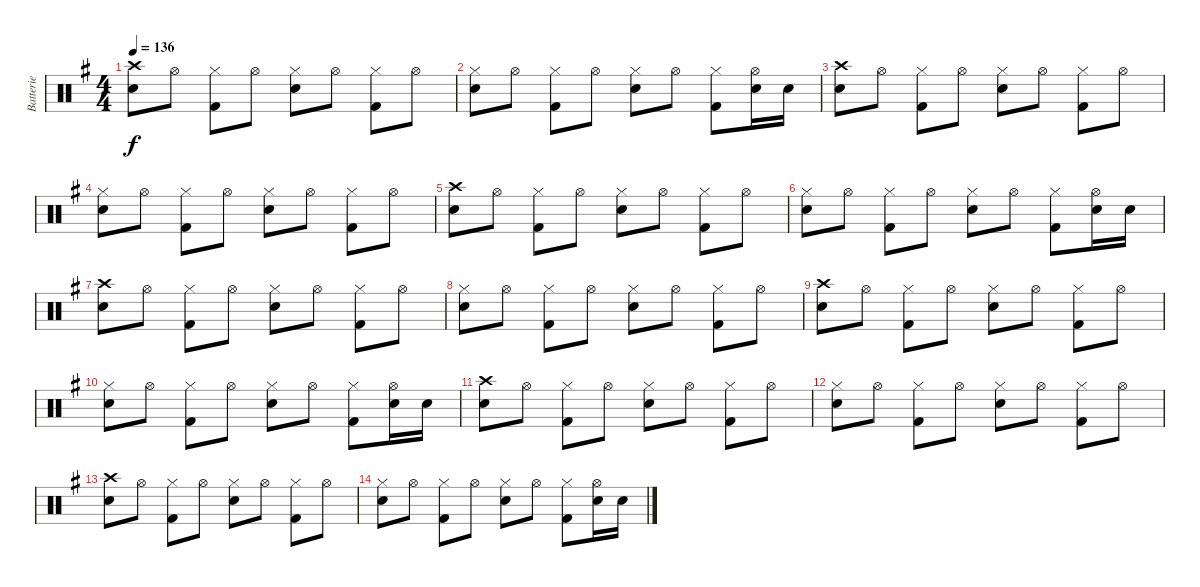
\track ("Batterie" "Batterie") {instrument percussion}
\staff {score}
\articulation defaults
\ts (4 4)
\tempo 136
\clef neutral
\ks g
("Crash high (hit)" "Snare (hit) 2").8{dy f} "Hi-Hat (open)".8 ("Hi-Hat (closed)" "Kick (hit) 2").8 "Hi-Hat (open)".8 ("Hi-Hat (closed)" "Snare (hit) 2").8 "Hi-Hat (open)".8 ("Hi-Hat (closed)" "Kick (hit) 2").8 "Hi-Hat (open)".8 |
("Hi-Hat (closed)" "Snare (hit) 2").8 "Hi-Hat (open)".8 ("Hi-Hat (closed)" "Kick (hit) 2").8 "Hi-Hat (open)".8 ("Hi-Hat (closed)" "Snare (hit) 2").8 "Hi-Hat (open)".8 ("Hi-Hat (closed)" "Kick (hit) 2").8 ("Hi-Hat (open)" "Snare (hit) 2").16 "Snare (hit) 2".16 |
("Crash high (hit)" "Snare (hit) 2").8 "Hi-Hat (open)".8 ("Hi-Hat (closed)" "Kick (hit) 2").8 "Hi-Hat (open)".8 ("Hi-Hat (closed)" "Snare (hit) 2").8 "Hi-Hat (open)".8 ("Hi-Hat (closed)" "Kick (hit) 2").8 "Hi-Hat (open)".8 |
("Hi-Hat (closed)" "Snare (hit) 2").8 "Hi-Hat (open)".8 ("Hi-Hat (closed)" "Kick (hit) 2").8 "Hi-Hat (open)".8 ("Hi-Hat (closed)" "Snare (hit) 2").8 "Hi-Hat (open)".8 ("Hi-Hat (closed)" "Kick (hit) 2").8 "Hi-Hat (open)".8 |
("Crash high (hit)" "Snare (hit) 2").8 "Hi-Hat (open)".8 ("Hi-Hat (closed)" "Kick (hit) 2").8 "Hi-Hat (open)".8 ("Hi-Hat (closed)" "Snare (hit) 2").8 "Hi-Hat (open)".8 ("Hi-Hat (closed)" "Kick (hit) 2").8 "Hi-Hat (open)".8 |
("Hi-Hat (closed)" "Snare (hit) 2").8 "Hi-Hat (open)".8 ("Hi-Hat (closed)" "Kick (hit) 2").8 "Hi-Hat (open)".8 ("Hi-Hat (closed)" "Snare (hit) 2").8 "Hi-Hat (open)".8 ("Hi-Hat (closed)" "Kick (hit) 2").8 ("Hi-Hat (open)" "Snare (hit) 2").16 "Snare (hit) 2".16 |
("Crash high (hit)" "Snare (hit) 2").8 "Hi-Hat (open)".8 ("Hi-Hat (closed)" "Kick (hit) 2").8 "Hi-Hat (open)".8 ("Hi-Hat (closed)" "Snare (hit) 2").8 "Hi-Hat (open)".8 ("Hi-Hat (closed)" "Kick (hit) 2").8 "Hi-Hat (open)".8 |
("Hi-Hat (closed)" "Snare (hit) 2").8 "Hi-Hat (open)".8 ("Hi-Hat (closed)" "Kick (hit) 2").8 "Hi-Hat (open)".8 ("Hi-Hat (closed)" "Snare (hit) 2").8 "Hi-Hat (open)".8 ("Hi-Hat (closed)" "Kick (hit) 2").8 "Hi-Hat (open)".8 |
("Crash high (hit)" "Snare (hit) 2").8 "Hi-Hat (open)".8 ("Hi-Hat (closed)" "Kick (hit) 2").8 "Hi-Hat (open)".8 ("Hi-Hat (closed)" "Snare (hit) 2").8 "Hi-Hat (open)".8 ("Hi-Hat (closed)" "Kick (hit) 2").8 "Hi-Hat (open)".8 |
("Hi-Hat (closed)" "Snare (hit) 2").8 "Hi-Hat (open)".8 ("Hi-Hat (closed)" "Kick (hit) 2").8 "Hi-Hat (open)".8 ("Hi-Hat (closed)" "Snare (hit) 2").8 "Hi-Hat (open)".8 ("Hi-Hat (closed)" "Kick (hit) 2").8 ("Hi-Hat (open)" "Snare (hit) 2").16 "Snare (hit) 2".16 |
("Crash high (hit)" "Snare (hit) 2").8 "Hi-Hat (open)".8 ("Hi-Hat (closed)" "Kick (hit) 2").8 "Hi-Hat (open)".8 ("Hi-Hat (closed)" "Snare (hit) 2").8 "Hi-Hat (open)".8 ("Hi-Hat (closed)" "Kick (hit) 2").8 "Hi-Hat (open)".8 |
("Hi-Hat (closed)" "Snare (hit) 2").8 "Hi-Hat (open)".8 ("Hi-Hat (closed)" "Kick (hit) 2").8 "Hi-Hat (open)".8 ("Hi-Hat (closed)" "Snare (hit) 2").8 "Hi-Hat (open)".8 ("Hi-Hat (closed)" "Kick (hit) 2").8 "Hi-Hat (open)".8 |
("Crash high (hit)" "Snare (hit) 2").8 "Hi-Hat (open)".8 ("Hi-Hat (closed)" "Kick (hit) 2").8 "Hi-Hat (open)".8 ("Hi-Hat (closed)" "Snare (hit) 2").8 "Hi-Hat (open)".8 ("Hi-Hat (closed)" "Kick (hit) 2").8 "Hi-Hat (open)".8 |
("Hi-Hat (closed)" "Snare (hit) 2").8 "Hi-Hat (open)".8 ("Hi-Hat (closed)" "Kick (hit) 2").8 "Hi-Hat (open)".8 ("Hi-Hat (closed)" "Snare (hit) 2").8 "Hi-Hat (open)".8 ("Hi-Hat (closed)" "Kick (hit) 2").8 ("Hi-Hat (open)" "Snare (hit) 2").16 "Snare (hit) 2".16
